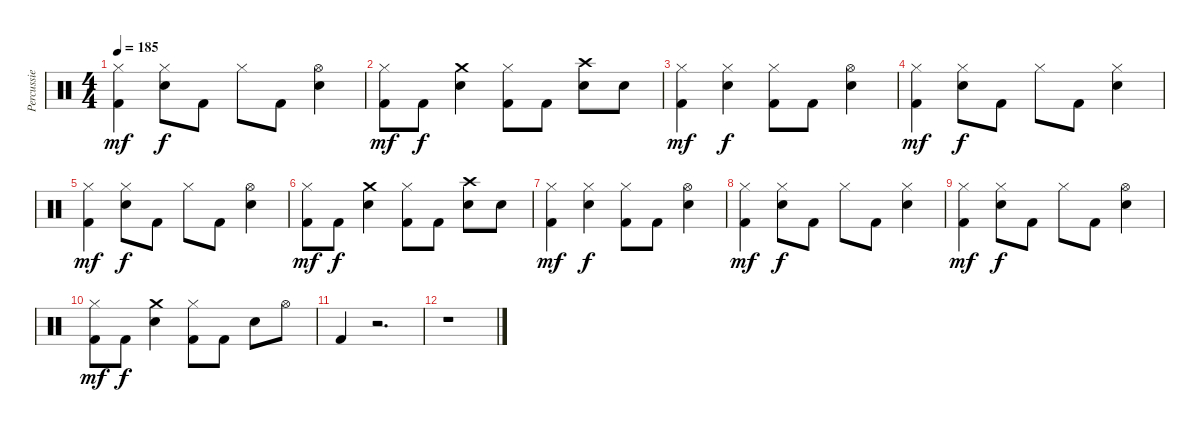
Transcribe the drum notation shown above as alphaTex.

\track ("Percussie" "Percussie") {instrument percussion}
\staff {score}
\articulation defaults
\ts (4 4)
\tempo 185
\clef neutral
\ks c
("Hi-Hat (closed)" "Kick (hit) 2").4{dy mf} ("Hi-Hat (closed)" "Electric Snare (hit)").8{dy f} "Kick (hit) 2".8 "Hi-Hat (closed)".8 "Kick (hit) 2".8 ("Hi-Hat (open)" "Electric Snare (hit)").4 |
("Hi-Hat (closed)" "Kick (hit) 2").8{dy mf} "Kick (hit) 2".8{dy f} ("Crash medium (hit)" "Electric Snare (hit)").4 ("Hi-Hat (closed)" "Kick (hit) 2").8 "Kick (hit) 2".8 ("Crash high (hit)" "Electric Snare (hit)").8 "Electric Snare (hit)".8 |
("Hi-Hat (closed)" "Kick (hit) 2").4{dy mf} ("Hi-Hat (closed)" "Electric Snare (hit)").4{dy f} ("Hi-Hat (closed)" "Kick (hit) 2").8 "Kick (hit) 2".8 ("Hi-Hat (open)" "Electric Snare (hit)").4 |
("Hi-Hat (closed)" "Kick (hit) 2").4{dy mf} ("Hi-Hat (closed)" "Electric Snare (hit)").8{dy f} "Kick (hit) 2".8 "Hi-Hat (closed)".8 "Kick (hit) 2".8 ("Hi-Hat (closed)" "Electric Snare (hit)").4 |
("Hi-Hat (closed)" "Kick (hit) 2").4{dy mf} ("Hi-Hat (closed)" "Electric Snare (hit)").8{dy f} "Kick (hit) 2".8 "Hi-Hat (closed)".8 "Kick (hit) 2".8 ("Hi-Hat (open)" "Electric Snare (hit)").4 |
("Hi-Hat (closed)" "Kick (hit) 2").8{dy mf} "Kick (hit) 2".8{dy f} ("Crash medium (hit)" "Electric Snare (hit)").4 ("Hi-Hat (closed)" "Kick (hit) 2").8 "Kick (hit) 2".8 ("Crash high (hit)" "Electric Snare (hit)").8 "Electric Snare (hit)".8 |
("Hi-Hat (closed)" "Kick (hit) 2").4{dy mf} ("Hi-Hat (closed)" "Electric Snare (hit)").4{dy f} ("Hi-Hat (closed)" "Kick (hit) 2").8 "Kick (hit) 2".8 ("Hi-Hat (open)" "Electric Snare (hit)").4 |
("Hi-Hat (closed)" "Kick (hit) 2").4{dy mf} ("Hi-Hat (closed)" "Electric Snare (hit)").8{dy f} "Kick (hit) 2".8 "Hi-Hat (closed)".8 "Kick (hit) 2".8 ("Hi-Hat (closed)" "Electric Snare (hit)").4 |
("Hi-Hat (closed)" "Kick (hit) 2").4{dy mf} ("Hi-Hat (closed)" "Electric Snare (hit)").8{dy f} "Kick (hit) 2".8 "Hi-Hat (closed)".8 "Kick (hit) 2".8 ("Hi-Hat (open)" "Electric Snare (hit)").4 |
("Hi-Hat (closed)" "Kick (hit) 2").8{dy mf} "Kick (hit) 2".8{dy f} ("Crash medium (hit)" "Electric Snare (hit)").4 ("Hi-Hat (closed)" "Kick (hit) 2").8 "Kick (hit) 2".8 "Electric Snare (hit)".8 "Hi-Hat (open)".8 |
"Kick (hit) 2".4 r.2{d} |
r.1
